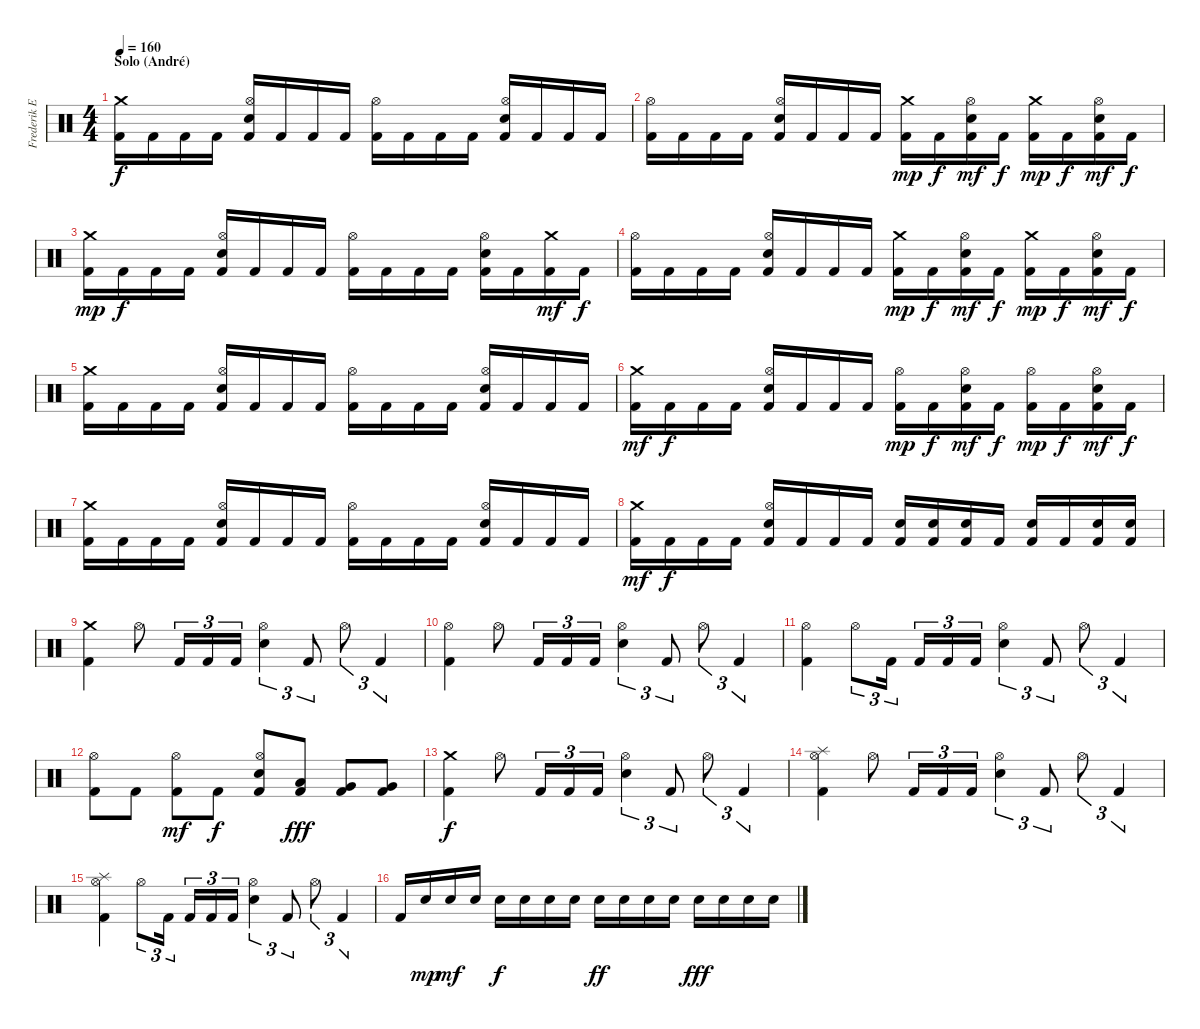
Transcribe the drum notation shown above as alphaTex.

\track ("Frederik Ehmke" "Frederik E") {instrument percussion}
\staff {score}
\articulation defaults
\ts (4 4)
\section ("" "Solo (André)")
\tempo 160
\clef neutral
\ks c
("Crash medium (hit)" "Kick (hit) 2").16{dy f} "Kick (hit) 2".16 "Kick (hit) 2".16 "Kick (hit) 2".16 ("Hi-Hat (open)" "Electric Snare (hit)" "Kick (hit) 2").16 "Kick (hit) 2".16 "Kick (hit) 2".16 "Kick (hit) 2".16 ("Hi-Hat (open)" "Kick (hit) 2").16 "Kick (hit) 2".16 "Kick (hit) 2".16 "Kick (hit) 2".16 ("Hi-Hat (open)" "Electric Snare (hit)" "Kick (hit) 2").16 "Kick (hit) 2".16 "Kick (hit) 2".16 "Kick (hit) 2".16 |
("Hi-Hat (open)" "Kick (hit) 2").16 "Kick (hit) 2".16 "Kick (hit) 2".16 "Kick (hit) 2".16 ("Hi-Hat (open)" "Electric Snare (hit)" "Kick (hit) 2").16 "Kick (hit) 2".16 "Kick (hit) 2".16 "Kick (hit) 2".16 ("Crash medium (hit)" "Kick (hit) 2").16{dy mp} "Kick (hit) 2".16{dy f} ("Hi-Hat (open)" "Electric Snare (hit)" "Kick (hit) 2").16{dy mf} "Kick (hit) 2".16{dy f} ("Crash medium (hit)" "Kick (hit) 2").16{dy mp} "Kick (hit) 2".16{dy f} ("Hi-Hat (open)" "Electric Snare (hit)" "Kick (hit) 2").16{dy mf} "Kick (hit) 2".16{dy f} |
("Crash medium (hit)" "Kick (hit) 2").16{dy mp} "Kick (hit) 2".16{dy f} "Kick (hit) 2".16 "Kick (hit) 2".16 ("Hi-Hat (open)" "Electric Snare (hit)" "Kick (hit) 2").16 "Kick (hit) 2".16 "Kick (hit) 2".16 "Kick (hit) 2".16 ("Hi-Hat (open)" "Kick (hit) 2").16 "Kick (hit) 2".16 "Kick (hit) 2".16 "Kick (hit) 2".16 ("Hi-Hat (open)" "Electric Snare (hit)" "Kick (hit) 2").16 "Kick (hit) 2".16 ("Crash medium (hit)" "Kick (hit) 2").16{dy mf} "Kick (hit) 2".16{dy f} |
("Hi-Hat (open)" "Kick (hit) 2").16 "Kick (hit) 2".16 "Kick (hit) 2".16 "Kick (hit) 2".16 ("Hi-Hat (open)" "Electric Snare (hit)" "Kick (hit) 2").16 "Kick (hit) 2".16 "Kick (hit) 2".16 "Kick (hit) 2".16 ("Crash medium (hit)" "Kick (hit) 2").16{dy mp} "Kick (hit) 2".16{dy f} ("Hi-Hat (open)" "Electric Snare (hit)" "Kick (hit) 2").16{dy mf} "Kick (hit) 2".16{dy f} ("Crash medium (hit)" "Kick (hit) 2").16{dy mp} "Kick (hit) 2".16{dy f} ("Hi-Hat (open)" "Electric Snare (hit)" "Kick (hit) 2").16{dy mf} "Kick (hit) 2".16{dy f} |
("Crash medium (hit)" "Kick (hit) 2").16 "Kick (hit) 2".16 "Kick (hit) 2".16 "Kick (hit) 2".16 ("Hi-Hat (open)" "Electric Snare (hit)" "Kick (hit) 2").16 "Kick (hit) 2".16 "Kick (hit) 2".16 "Kick (hit) 2".16 ("Hi-Hat (open)" "Kick (hit) 2").16 "Kick (hit) 2".16 "Kick (hit) 2".16 "Kick (hit) 2".16 ("Hi-Hat (open)" "Electric Snare (hit)" "Kick (hit) 2").16 "Kick (hit) 2".16 "Kick (hit) 2".16 "Kick (hit) 2".16 |
("Crash medium (hit)" "Kick (hit) 2").16{dy mf} "Kick (hit) 2".16{dy f} "Kick (hit) 2".16 "Kick (hit) 2".16 ("Hi-Hat (open)" "Electric Snare (hit)" "Kick (hit) 2").16 "Kick (hit) 2".16 "Kick (hit) 2".16 "Kick (hit) 2".16 ("Hi-Hat (open)" "Kick (hit) 2").16{dy mp} "Kick (hit) 2".16{dy f} ("Hi-Hat (open)" "Electric Snare (hit)" "Kick (hit) 2").16{dy mf} "Kick (hit) 2".16{dy f} ("Hi-Hat (open)" "Kick (hit) 2").16{dy mp} "Kick (hit) 2".16{dy f} ("Hi-Hat (open)" "Electric Snare (hit)" "Kick (hit) 2").16{dy mf} "Kick (hit) 2".16{dy f} |
("Crash medium (hit)" "Kick (hit) 2").16 "Kick (hit) 2".16 "Kick (hit) 2".16 "Kick (hit) 2".16 ("Hi-Hat (open)" "Electric Snare (hit)" "Kick (hit) 2").16 "Kick (hit) 2".16 "Kick (hit) 2".16 "Kick (hit) 2".16 ("Hi-Hat (open)" "Kick (hit) 2").16 "Kick (hit) 2".16 "Kick (hit) 2".16 "Kick (hit) 2".16 ("Hi-Hat (open)" "Electric Snare (hit)" "Kick (hit) 2").16 "Kick (hit) 2".16 "Kick (hit) 2".16 "Kick (hit) 2".16 |
("Crash medium (hit)" "Kick (hit) 2").16{dy mf} "Kick (hit) 2".16{dy f} "Kick (hit) 2".16 "Kick (hit) 2".16 ("Hi-Hat (open)" "Electric Snare (hit)" "Kick (hit) 2").16 "Kick (hit) 2".16 "Kick (hit) 2".16 "Kick (hit) 2".16 ("Electric Snare (hit)" "Kick (hit) 2").16 ("Electric Snare (hit)" "Kick (hit) 2").16 ("Electric Snare (hit)" "Kick (hit) 2").16 "Kick (hit) 2".16 ("Electric Snare (hit)" "Kick (hit) 2").16 "Kick (hit) 2".16 ("Electric Snare (hit)" "Kick (hit) 2").16 ("Electric Snare (hit)" "Kick (hit) 2").16 |
("Crash medium (hit)" "Kick (hit) 2").4 "Hi-Hat (open)".8 "Kick (hit) 2".16{tu (3 2)} "Kick (hit) 2".16{tu (3 2)} "Kick (hit) 2".16{tu (3 2)} ("Hi-Hat (open)" "Electric Snare (hit)").4{tu (3 2)} "Kick (hit) 2".8{tu (3 2)} "Hi-Hat (open)".8{tu (3 2)} "Kick (hit) 2".4{tu (3 2)} |
("Hi-Hat (open)" "Kick (hit) 2").4 "Hi-Hat (open)".8 "Kick (hit) 2".16{tu (3 2)} "Kick (hit) 2".16{tu (3 2)} "Kick (hit) 2".16{tu (3 2)} ("Hi-Hat (open)" "Electric Snare (hit)").4{tu (3 2)} "Kick (hit) 2".8{tu (3 2)} "Hi-Hat (open)".8{tu (3 2)} "Kick (hit) 2".4{tu (3 2)} |
("Hi-Hat (open)" "Kick (hit) 2").4 "Hi-Hat (open)".8{tu (3 2)} "Kick (hit) 2".16{tu (3 2) beam splitsecondary} "Kick (hit) 2".16{tu (3 2)} "Kick (hit) 2".16{tu (3 2)} "Kick (hit) 2".16{tu (3 2)} ("Hi-Hat (open)" "Electric Snare (hit)").4{tu (3 2)} "Kick (hit) 2".8{tu (3 2)} "Hi-Hat (open)".8{tu (3 2)} "Kick (hit) 2".4{tu (3 2)} |
("Hi-Hat (open)" "Kick (hit) 2").8 "Kick (hit) 2".8 ("Hi-Hat (open)" "Kick (hit) 2").8{dy mf} "Kick (hit) 2".8{dy f} ("Hi-Hat (open)" "Electric Snare (hit)" "Kick (hit) 2").8 ("Low Tom (hit)" "Kick (hit) 2").8{dy fff} ("Very Low Tom (hit)" "Kick (hit) 2").8 ("Very Low Tom (hit)" "Kick (hit) 2").8 |
("Crash medium (hit)" "Kick (hit) 2").4{dy f} "Hi-Hat (open)".8 "Kick (hit) 2".16{tu (3 2)} "Kick (hit) 2".16{tu (3 2)} "Kick (hit) 2".16{tu (3 2)} ("Hi-Hat (open)" "Electric Snare (hit)").4{tu (3 2)} "Kick (hit) 2".8{tu (3 2)} "Hi-Hat (open)".8{tu (3 2)} "Kick (hit) 2".4{tu (3 2)} |
("Hi-Hat (open)" "Splash (hit)" "Kick (hit) 2").4 "Hi-Hat (open)".8 "Kick (hit) 2".16{tu (3 2)} "Kick (hit) 2".16{tu (3 2)} "Kick (hit) 2".16{tu (3 2)} ("Hi-Hat (open)" "Electric Snare (hit)").4{tu (3 2)} "Kick (hit) 2".8{tu (3 2)} "Hi-Hat (open)".8{tu (3 2)} "Kick (hit) 2".4{tu (3 2)} |
("Hi-Hat (open)" "Splash (hit)" "Kick (hit) 2").4 "Hi-Hat (open)".8{tu (3 2)} "Kick (hit) 2".16{tu (3 2) beam splitsecondary} "Kick (hit) 2".16{tu (3 2)} "Kick (hit) 2".16{tu (3 2)} "Kick (hit) 2".16{tu (3 2)} ("Hi-Hat (open)" "Electric Snare (hit)").4{tu (3 2)} "Kick (hit) 2".8{tu (3 2)} "Hi-Hat (open)".8{tu (3 2)} "Kick (hit) 2".4{tu (3 2)} |
"Kick (hit) 2".16 "Electric Snare (hit)".16{dy mp} "Electric Snare (hit)".16{dy mf} "Electric Snare (hit)".16 "Electric Snare (hit)".16{dy f} "Electric Snare (hit)".16 "Electric Snare (hit)".16 "Electric Snare (hit)".16 "Electric Snare (hit)".16{dy ff} "Electric Snare (hit)".16 "Electric Snare (hit)".16 "Electric Snare (hit)".16 "Electric Snare (hit)".16{dy fff} "Electric Snare (hit)".16 "Electric Snare (hit)".16 "Electric Snare (hit)".16
